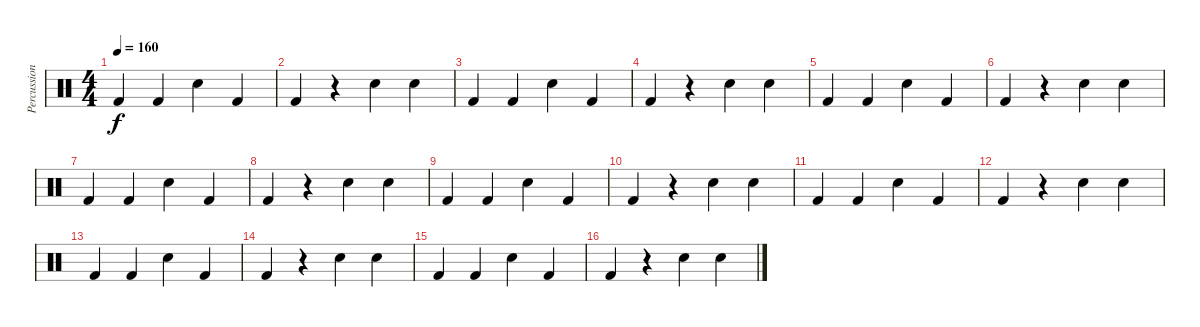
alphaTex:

\track ("Percussion" "Percussion") {instrument percussion}
\staff {score}
\articulation defaults
\ts (4 4)
\tempo 160
\clef neutral
\ks c "Kick (hit) 2".4{dy f} "Kick (hit) 2".4 "Electric Snare (hit)".4 "Kick (hit) 2".4
|
"Kick (hit) 2".4 r.4 "Electric Snare (hit)".4 "Electric Snare (hit)".4 |
"Kick (hit) 2".4 "Kick (hit) 2".4 "Electric Snare (hit)".4 "Kick (hit) 2".4 |
"Kick (hit) 2".4 r.4 "Electric Snare (hit)".4 "Electric Snare (hit)".4 |
"Kick (hit) 2".4 "Kick (hit) 2".4 "Electric Snare (hit)".4 "Kick (hit) 2".4 |
"Kick (hit) 2".4 r.4 "Electric Snare (hit)".4 "Electric Snare (hit)".4 |
"Kick (hit) 2".4 "Kick (hit) 2".4 "Electric Snare (hit)".4 "Kick (hit) 2".4 |
"Kick (hit) 2".4 r.4 "Electric Snare (hit)".4 "Electric Snare (hit)".4 |
"Kick (hit) 2".4 "Kick (hit) 2".4 "Electric Snare (hit)".4 "Kick (hit) 2".4 |
"Kick (hit) 2".4 r.4 "Electric Snare (hit)".4 "Electric Snare (hit)".4 |
"Kick (hit) 2".4 "Kick (hit) 2".4 "Electric Snare (hit)".4 "Kick (hit) 2".4 |
"Kick (hit) 2".4 r.4 "Electric Snare (hit)".4 "Electric Snare (hit)".4 |
"Kick (hit) 2".4 "Kick (hit) 2".4 "Electric Snare (hit)".4 "Kick (hit) 2".4 |
"Kick (hit) 2".4 r.4 "Electric Snare (hit)".4 "Electric Snare (hit)".4 |
"Kick (hit) 2".4 "Kick (hit) 2".4 "Electric Snare (hit)".4 "Kick (hit) 2".4 |
"Kick (hit) 2".4 r.4 "Electric Snare (hit)".4 "Electric Snare (hit)".4
